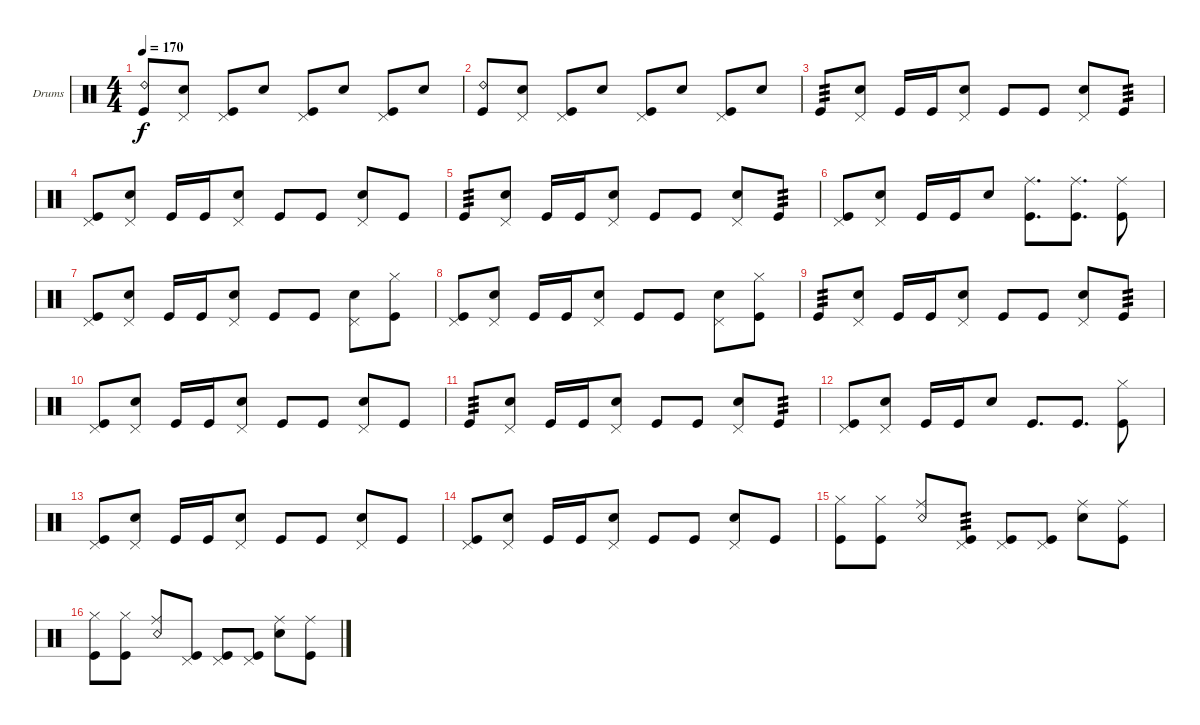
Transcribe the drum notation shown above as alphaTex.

\bracketExtendMode groupsimilarinstruments
\firstSystemTrackNameOrientation horizontal
\otherSystemsTrackNameOrientation horizontal
\track ("Danya" "Drums") {mute instrument percussion}
\staff {score}
\articulation defaults
\ts (4 4)
\tempo 170
\clef neutral
\scale
0.333333
\ks c
("Kick (hit)" "Ride (bell) 2").8{dy f} ("Snare (hit) 2" "Pedal Hi-Hat (hit)").8 ("Kick (hit)" "Pedal Hi-Hat (hit)").8 "Snare (hit) 2".8 ("Pedal Hi-Hat (hit)" "Kick (hit)").8 "Snare (hit) 2".8 ("Kick (hit)" "Pedal Hi-Hat (hit)").8 "Snare (hit) 2".8 |
\scale
0.333333 ("Kick (hit)" "Ride (bell) 2").8 ("Snare (hit) 2" "Pedal Hi-Hat (hit)").8 ("Kick (hit)" "Pedal Hi-Hat (hit)").8 "Snare (hit) 2".8 ("Pedal Hi-Hat (hit)" "Kick (hit)").8 "Snare (hit) 2".8 ("Kick (hit)" "Pedal Hi-Hat (hit)").8 "Snare (hit) 2".8 |
\scale
0.333333 "Kick (hit)".8{tp 3} ("Snare (hit) 2" "Pedal Hi-Hat (hit)").8 "Kick (hit)".16 "Kick (hit)".16 ("Snare (hit) 2" "Pedal Hi-Hat (hit)").8 "Kick (hit)".8 "Kick (hit)".8 ("Snare (hit) 2" "Pedal Hi-Hat (hit)").8 "Kick (hit)".8{tp 3} |
\scale
0.333333 ("Kick (hit)" "Pedal Hi-Hat (hit)").8 ("Snare (hit) 2" "Pedal Hi-Hat (hit)").8 "Kick (hit)".16 "Kick (hit)".16 ("Snare (hit) 2" "Pedal Hi-Hat (hit)").8 "Kick (hit)".8 "Kick (hit)".8 ("Snare (hit) 2" "Pedal Hi-Hat (hit)").8 "Kick (hit)".8 |
\scale
0.333333 "Kick (hit)".8{tp 3} ("Snare (hit) 2" "Pedal Hi-Hat (hit)").8 "Kick (hit)".16 "Kick (hit)".16 ("Snare (hit) 2" "Pedal Hi-Hat (hit)").8 "Kick (hit)".8 "Kick (hit)".8 ("Snare (hit) 2" "Pedal Hi-Hat (hit)").8 "Kick (hit)".8{tp 3} |
\scale
0.333333 ("Kick (hit)" "Pedal Hi-Hat (hit)").8 ("Snare (hit) 2" "Pedal Hi-Hat (hit)").8 "Kick (hit)".16 "Kick (hit)".16 "Snare (hit) 2".8 ("Kick (hit)" "Ride (middle)").8{d} ("Kick (hit)" "Ride (middle)").8{d} ("Kick (hit)" "Ride (middle)").8 |
\scale
0.333333 ("Kick (hit)" "Pedal Hi-Hat (hit)").8 ("Snare (hit) 2" "Pedal Hi-Hat (hit)").8 "Kick (hit)".16 "Kick (hit)".16 ("Snare (hit) 2" "Pedal Hi-Hat (hit)").8 "Kick (hit)".8 "Kick (hit)".8 ("Snare (hit) 2" "Pedal Hi-Hat (hit)").8 ("Kick (hit)" "Hi-Hat (closed)").8 |
\scale
0.333333 ("Kick (hit)" "Pedal Hi-Hat (hit)").8 ("Snare (hit) 2" "Pedal Hi-Hat (hit)").8 "Kick (hit)".16 "Kick (hit)".16 ("Snare (hit) 2" "Pedal Hi-Hat (hit)").8 "Kick (hit)".8 "Kick (hit)".8 ("Snare (hit) 2" "Pedal Hi-Hat (hit)").8 ("Kick (hit)" "Hi-Hat (closed)").8 |
\scale
0.333333 "Kick (hit)".8{tp 3} ("Snare (hit) 2" "Pedal Hi-Hat (hit)").8 "Kick (hit)".16 "Kick (hit)".16 ("Snare (hit) 2" "Pedal Hi-Hat (hit)").8 "Kick (hit)".8 "Kick (hit)".8 ("Snare (hit) 2" "Pedal Hi-Hat (hit)").8 "Kick (hit)".8{tp 3} |
\scale
0.333333 ("Kick (hit)" "Pedal Hi-Hat (hit)").8 ("Snare (hit) 2" "Pedal Hi-Hat (hit)").8 "Kick (hit)".16 "Kick (hit)".16 ("Snare (hit) 2" "Pedal Hi-Hat (hit)").8 "Kick (hit)".8 "Kick (hit)".8 ("Snare (hit) 2" "Pedal Hi-Hat (hit)").8 "Kick (hit)".8 |
\scale
0.333333 "Kick (hit)".8{tp 3} ("Snare (hit) 2" "Pedal Hi-Hat (hit)").8 "Kick (hit)".16 "Kick (hit)".16 ("Snare (hit) 2" "Pedal Hi-Hat (hit)").8 "Kick (hit)".8 "Kick (hit)".8 ("Snare (hit) 2" "Pedal Hi-Hat (hit)").8 "Kick (hit)".8{tp 3} |
\scale
0.333333 ("Kick (hit)" "Pedal Hi-Hat (hit)").8 ("Snare (hit) 2" "Pedal Hi-Hat (hit)").8 "Kick (hit)".16 "Kick (hit)".16 "Snare (hit) 2".8 "Kick (hit)".8{d} "Kick (hit)".8{d} ("Kick (hit)" "Hi-Hat (closed)").8 |
\scale
0.333333 ("Kick (hit)" "Pedal Hi-Hat (hit)").8 ("Snare (hit) 2" "Pedal Hi-Hat (hit)").8 "Kick (hit)".16 "Kick (hit)".16 ("Snare (hit) 2" "Pedal Hi-Hat (hit)").8 "Kick (hit)".8 "Kick (hit)".8 ("Snare (hit) 2" "Pedal Hi-Hat (hit)").8 "Kick (hit)".8 |
\scale
0.333333 ("Kick (hit)" "Pedal Hi-Hat (hit)").8 ("Snare (hit) 2" "Pedal Hi-Hat (hit)").8 "Kick (hit)".16 "Kick (hit)".16 ("Snare (hit) 2" "Pedal Hi-Hat (hit)").8 "Kick (hit)".8 "Kick (hit)".8 ("Snare (hit) 2" "Pedal Hi-Hat (hit)").8 "Kick (hit)".8 |
\scale
0.333333 ("Hi-Hat (closed)" "Kick (hit)").8 ("Hi-Hat (closed)" "Kick (hit)").8 ("Snare (rim shot)" "Ride (middle)").8 ("Kick (hit)" "Pedal Hi-Hat (hit)").8{tp 3} ("Kick (hit)" "Pedal Hi-Hat (hit)").8 ("Kick (hit)" "Pedal Hi-Hat (hit)").8 ("Snare (hit) 2" "Ride (middle)").8 ("Kick (hit)" "Ride (middle)").8 |
\scale
0.333333 ("Hi-Hat (closed)" "Kick (hit)").8 ("Hi-Hat (closed)" "Kick (hit)").8 ("Snare (rim shot)" "Ride (middle)").8 ("Kick (hit)" "Pedal Hi-Hat (hit)").8 ("Kick (hit)" "Pedal Hi-Hat (hit)").8 ("Kick (hit)" "Pedal Hi-Hat (hit)").8 ("Snare (hit) 2" "Ride (middle)").8 ("Kick (hit)" "Ride (middle)").8
